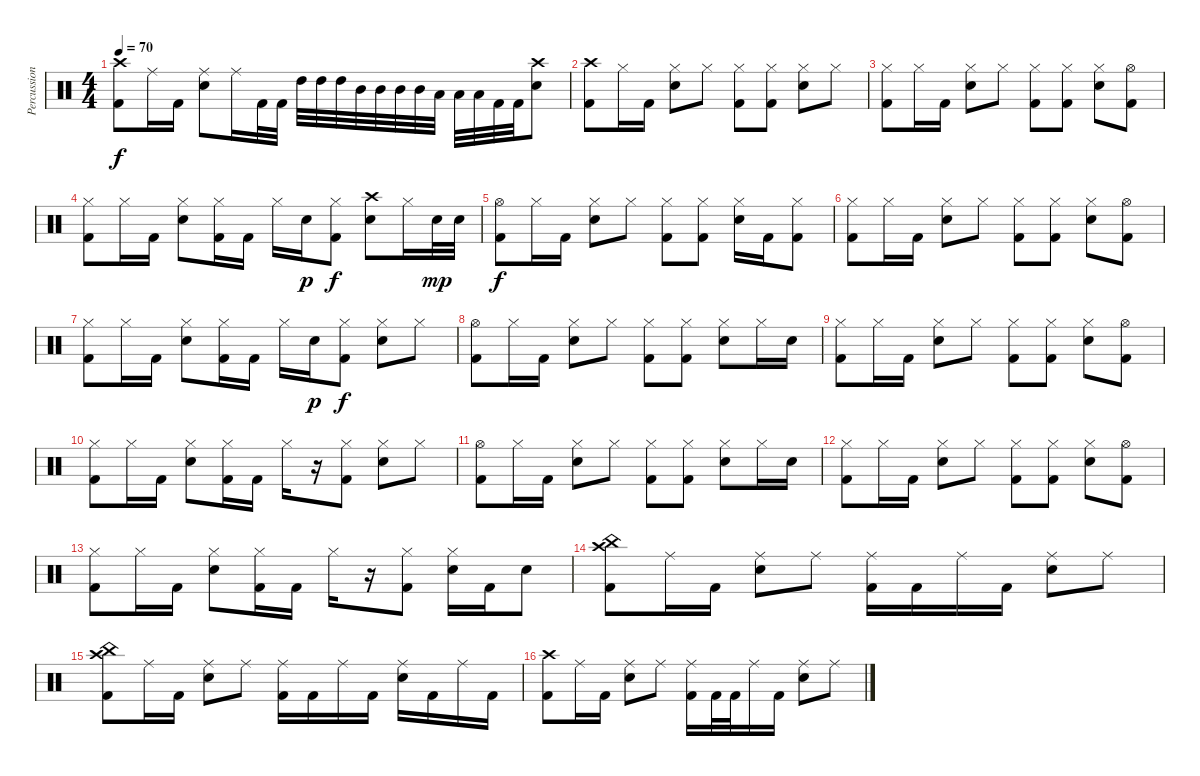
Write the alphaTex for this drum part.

\track ("Percussion" "Percussion") {instrument percussion}
\staff {score}
\articulation defaults
\ts (4 4)
\tempo 70
\clef neutral
\ks c
("Crash high (hit)" "Kick (hit) 2").8{dy f} "Ride (middle)".16 "Kick (hit) 2".16 ("Ride (middle)" "Snare (hit) 2").8 "Ride (middle)".16 "Kick (hit) 2".32 "Kick (hit) 2".32 "High Tom (hit)".32 "High Tom (hit)".32 "High Tom (hit)".32 "Mid Tom (hit)".32 "Mid Tom (hit)".32 "Mid Tom (hit)".32 "Mid Tom (hit)".32 "Low Tom (hit)".32 "Low Tom (hit)".32 "Low Tom (hit)".32 "Kick (hit) 2".32 "Kick (hit) 2".32 ("Crash high (hit)" "Snare (hit) 2").8 |
("Crash high (hit)" "Kick (hit) 2").8 "Hi-Hat (closed)".16 "Kick (hit) 2".16 ("Hi-Hat (closed)" "Snare (hit) 2").8 "Hi-Hat (closed)".8 ("Hi-Hat (closed)" "Kick (hit) 2").8 ("Hi-Hat (closed)" "Kick (hit) 2").8 ("Hi-Hat (closed)" "Snare (hit) 2").8 "Hi-Hat (closed)".8 |
("Hi-Hat (closed)" "Kick (hit) 2").8 "Hi-Hat (closed)".16 "Kick (hit) 2".16 ("Hi-Hat (closed)" "Snare (hit) 2").8 "Hi-Hat (closed)".8 ("Hi-Hat (closed)" "Kick (hit) 2").8 ("Hi-Hat (closed)" "Kick (hit) 2").8 ("Hi-Hat (closed)" "Snare (hit) 2").8 ("Hi-Hat (open)" "Kick (hit) 2").8 |
("Hi-Hat (closed)" "Kick (hit) 2").8 "Hi-Hat (closed)".16 "Kick (hit) 2".16 ("Hi-Hat (closed)" "Snare (hit) 2").8 ("Hi-Hat (closed)" "Kick (hit) 2").16 "Kick (hit) 2".16 "Hi-Hat (closed)".16 "Snare (hit) 2".16{dy p} ("Hi-Hat (closed)" "Kick (hit) 2").8{dy f} ("Crash high (hit)" "Snare (hit) 2").8 "Hi-Hat (closed)".16 "Snare (hit) 2".32{dy mp} "Snare (hit) 2".32 |
("Hi-Hat (open)" "Kick (hit) 2").8{dy f} "Hi-Hat (closed)".16 "Kick (hit) 2".16 ("Hi-Hat (closed)" "Snare (hit) 2").8 "Hi-Hat (closed)".8 ("Hi-Hat (closed)" "Kick (hit) 2").8 ("Hi-Hat (closed)" "Kick (hit) 2").8 ("Hi-Hat (closed)" "Snare (hit) 2").16 "Kick (hit) 2".16 ("Hi-Hat (closed)" "Kick (hit) 2").8 |
("Hi-Hat (closed)" "Kick (hit) 2").8 "Hi-Hat (closed)".16 "Kick (hit) 2".16 ("Hi-Hat (closed)" "Snare (hit) 2").8 "Hi-Hat (closed)".8 ("Hi-Hat (closed)" "Kick (hit) 2").8 ("Hi-Hat (closed)" "Kick (hit) 2").8 ("Hi-Hat (closed)" "Snare (hit) 2").8 ("Hi-Hat (open)" "Kick (hit) 2").8 |
("Hi-Hat (closed)" "Kick (hit) 2").8 "Hi-Hat (closed)".16 "Kick (hit) 2".16 ("Hi-Hat (closed)" "Snare (hit) 2").8 ("Hi-Hat (closed)" "Kick (hit) 2").16 "Kick (hit) 2".16 "Hi-Hat (closed)".16 "Snare (hit) 2".16{dy p} ("Hi-Hat (closed)" "Kick (hit) 2").8{dy f} ("Hi-Hat (closed)" "Snare (hit) 2").8 "Hi-Hat (closed)".8 |
("Hi-Hat (open)" "Kick (hit) 2").8 "Hi-Hat (closed)".16 "Kick (hit) 2".16 ("Hi-Hat (closed)" "Snare (hit) 2").8 "Hi-Hat (closed)".8 ("Hi-Hat (closed)" "Kick (hit) 2").8 ("Hi-Hat (closed)" "Kick (hit) 2").8 ("Hi-Hat (closed)" "Snare (hit) 2").8 "Hi-Hat (closed)".16 "Snare (hit) 2".16 |
("Hi-Hat (closed)" "Kick (hit) 2").8 "Hi-Hat (closed)".16 "Kick (hit) 2".16 ("Hi-Hat (closed)" "Snare (hit) 2").8 "Hi-Hat (closed)".8 ("Hi-Hat (closed)" "Kick (hit) 2").8 ("Hi-Hat (closed)" "Kick (hit) 2").8 ("Hi-Hat (closed)" "Snare (hit) 2").8 ("Hi-Hat (open)" "Kick (hit) 2").8 |
("Hi-Hat (closed)" "Kick (hit) 2").8 "Hi-Hat (closed)".16 "Kick (hit) 2".16 ("Hi-Hat (closed)" "Snare (hit) 2").8 ("Hi-Hat (closed)" "Kick (hit) 2").16 "Kick (hit) 2".16 "Hi-Hat (closed)".16 r.16 ("Hi-Hat (closed)" "Kick (hit) 2").8 ("Hi-Hat (closed)" "Snare (hit) 2").8 "Hi-Hat (closed)".8 |
("Hi-Hat (open)" "Kick (hit) 2").8 "Hi-Hat (closed)".16 "Kick (hit) 2".16 ("Hi-Hat (closed)" "Snare (hit) 2").8 "Hi-Hat (closed)".8 ("Hi-Hat (closed)" "Kick (hit) 2").8 ("Hi-Hat (closed)" "Kick (hit) 2").8 ("Hi-Hat (closed)" "Snare (hit) 2").8 "Hi-Hat (closed)".16 "Snare (hit) 2".16 |
("Hi-Hat (closed)" "Kick (hit) 2").8 "Hi-Hat (closed)".16 "Kick (hit) 2".16 ("Hi-Hat (closed)" "Snare (hit) 2").8 "Hi-Hat (closed)".8 ("Hi-Hat (closed)" "Kick (hit) 2").8 ("Hi-Hat (closed)" "Kick (hit) 2").8 ("Hi-Hat (closed)" "Snare (hit) 2").8 ("Hi-Hat (open)" "Kick (hit) 2").8 |
("Hi-Hat (closed)" "Kick (hit) 2").8 "Hi-Hat (closed)".16 "Kick (hit) 2".16 ("Hi-Hat (closed)" "Snare (hit) 2").8 ("Hi-Hat (closed)" "Kick (hit) 2").16 "Kick (hit) 2".16 "Hi-Hat (closed)".16 r.16 ("Hi-Hat (closed)" "Kick (hit) 2").8 ("Hi-Hat (closed)" "Snare (hit) 2").16 "Kick (hit) 2".16 "Snare (hit) 2".8 |
("Crash high (hit)" "China (hit)" "Kick (hit) 2").8 "Ride (middle)".16 "Kick (hit) 2".16 ("Ride (middle)" "Snare (hit) 2").8 "Ride (middle)".8 ("Ride (middle)" "Kick (hit) 2").16 "Kick (hit) 2".16 "Ride (middle)".16 "Kick (hit) 2".16 ("Ride (middle)" "Snare (hit) 2").8 "Ride (middle)".8 |
("Crash high (hit)" "China (hit)" "Kick (hit) 2").8 "Ride (middle)".16 "Kick (hit) 2".16 ("Ride (middle)" "Snare (hit) 2").8 "Ride (middle)".8 ("Ride (middle)" "Kick (hit) 2").16 "Kick (hit) 2".16 "Ride (middle)".16 "Kick (hit) 2".16 ("Ride (middle)" "Snare (hit) 2").16 "Kick (hit) 2".16 "Ride (middle)".16 "Kick (hit) 2".16 |
("Crash high (hit)" "Kick (hit) 2").8 "Ride (middle)".16 "Kick (hit) 2".16 ("Ride (middle)" "Snare (hit) 2").8 "Ride (middle)".8 ("Ride (middle)" "Kick (hit) 2").16 "Kick (hit) 2".32 "Kick (hit) 2".32 "Ride (middle)".16 "Kick (hit) 2".16 ("Ride (middle)" "Snare (hit) 2").8 "Ride (middle)".8
